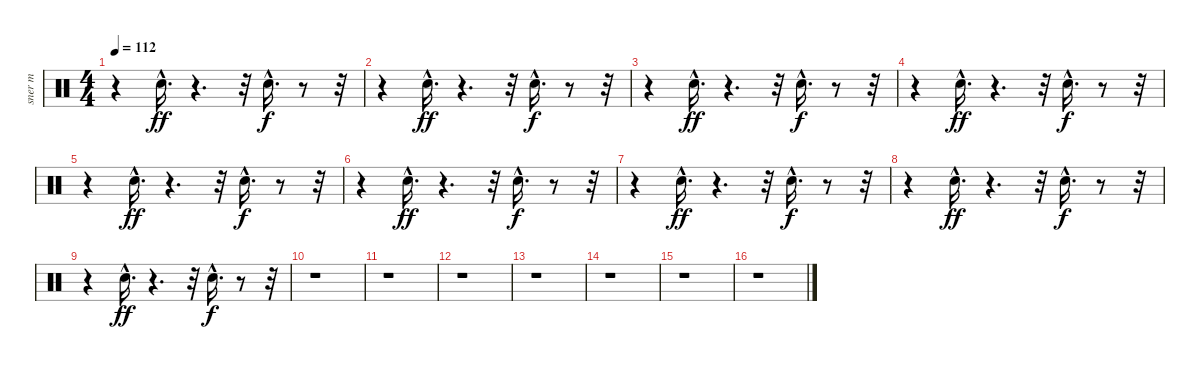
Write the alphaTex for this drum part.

\track ("sner m" "sner m") {instrument percussion}
\staff {score}
\articulation defaults
\ts (4 4)
\tempo 112
\clef neutral
\ks c
r.4{dy f} "Snare (hit) 2"{hac}.16{d dy ff} r.4{d} r.32 "Snare (hit) 2"{hac}.16{d dy f} r.8 r.32 |
r.4 "Snare (hit) 2"{hac}.16{d dy ff} r.4{d} r.32 "Snare (hit) 2"{hac}.16{d dy f} r.8 r.32 |
r.4 "Snare (hit) 2"{hac}.16{d dy ff} r.4{d} r.32 "Snare (hit) 2"{hac}.16{d dy f} r.8 r.32 |
r.4 "Snare (hit) 2"{hac}.16{d dy ff} r.4{d} r.32 "Snare (hit) 2"{hac}.16{d dy f} r.8 r.32 |
r.4 "Snare (hit) 2"{hac}.16{d dy ff} r.4{d} r.32 "Snare (hit) 2"{hac}.16{d dy f} r.8 r.32 |
r.4 "Snare (hit) 2"{hac}.16{d dy ff} r.4{d} r.32 "Snare (hit) 2"{hac}.16{d dy f} r.8 r.32 |
r.4 "Snare (hit) 2"{hac}.16{d dy ff} r.4{d} r.32 "Snare (hit) 2"{hac}.16{d dy f} r.8 r.32 |
r.4 "Snare (hit) 2"{hac}.16{d dy ff} r.4{d} r.32 "Snare (hit) 2"{hac}.16{d dy f} r.8 r.32 |
r.4 "Snare (hit) 2"{hac}.16{d dy ff} r.4{d} r.32 "Snare (hit) 2"{hac}.16{d dy f} r.8 r.32 |
r.1 |
r.1 |
r.1 |
r.1 |
r.1 |
r.1 |
r.1
